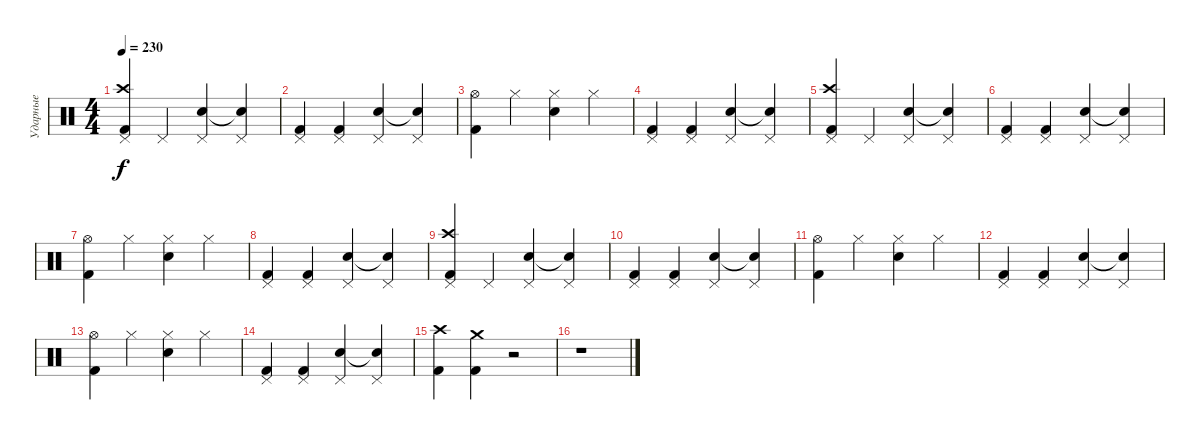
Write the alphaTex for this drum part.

\track ("Ударные" "Ударные") {instrument percussion}
\staff {score}
\articulation defaults
\ts (4 4)
\tempo 230
\clef neutral
\ks c
("Pedal Hi-Hat (hit)" "Crash high (hit)" "Kick (hit) 2").4{dy f} "Pedal Hi-Hat (hit)".4 ("Pedal Hi-Hat (hit)" "Electric Snare (hit)").4 ("Pedal Hi-Hat (hit)" "Electric Snare (hit)"{t}).4 |
("Pedal Hi-Hat (hit)" "Kick (hit) 2").4 ("Pedal Hi-Hat (hit)" "Kick (hit) 2").4 ("Pedal Hi-Hat (hit)" "Electric Snare (hit)").4 ("Pedal Hi-Hat (hit)" "Electric Snare (hit)"{t}).4 |
("Hi-Hat (open)" "Kick (hit) 2").4 "Hi-Hat (closed)".4 ("Hi-Hat (closed)" "Electric Snare (hit)").4 "Hi-Hat (closed)".4 |
("Pedal Hi-Hat (hit)" "Kick (hit) 2").4 ("Pedal Hi-Hat (hit)" "Kick (hit) 2").4 ("Pedal Hi-Hat (hit)" "Electric Snare (hit)").4 ("Pedal Hi-Hat (hit)" "Electric Snare (hit)"{t}).4 |
("Pedal Hi-Hat (hit)" "Crash high (hit)" "Kick (hit) 2").4 "Pedal Hi-Hat (hit)".4 ("Pedal Hi-Hat (hit)" "Electric Snare (hit)").4 ("Pedal Hi-Hat (hit)" "Electric Snare (hit)"{t}).4 |
("Pedal Hi-Hat (hit)" "Kick (hit) 2").4 ("Pedal Hi-Hat (hit)" "Kick (hit) 2").4 ("Pedal Hi-Hat (hit)" "Electric Snare (hit)").4 ("Pedal Hi-Hat (hit)" "Electric Snare (hit)"{t}).4 |
("Hi-Hat (open)" "Kick (hit) 2").4 "Hi-Hat (closed)".4 ("Hi-Hat (closed)" "Electric Snare (hit)").4 "Hi-Hat (closed)".4 |
("Pedal Hi-Hat (hit)" "Kick (hit) 2").4 ("Pedal Hi-Hat (hit)" "Kick (hit) 2").4 ("Pedal Hi-Hat (hit)" "Electric Snare (hit)").4 ("Pedal Hi-Hat (hit)" "Electric Snare (hit)"{t}).4 |
("Pedal Hi-Hat (hit)" "Crash high (hit)" "Kick (hit) 2").4 "Pedal Hi-Hat (hit)".4 ("Pedal Hi-Hat (hit)" "Electric Snare (hit)").4 ("Pedal Hi-Hat (hit)" "Electric Snare (hit)"{t}).4 |
("Pedal Hi-Hat (hit)" "Kick (hit) 2").4 ("Pedal Hi-Hat (hit)" "Kick (hit) 2").4 ("Pedal Hi-Hat (hit)" "Electric Snare (hit)").4 ("Pedal Hi-Hat (hit)" "Electric Snare (hit)"{t}).4 |
("Hi-Hat (open)" "Kick (hit) 2").4 "Hi-Hat (closed)".4 ("Hi-Hat (closed)" "Electric Snare (hit)").4 "Hi-Hat (closed)".4 |
("Pedal Hi-Hat (hit)" "Kick (hit) 2").4 ("Pedal Hi-Hat (hit)" "Kick (hit) 2").4 ("Pedal Hi-Hat (hit)" "Electric Snare (hit)").4 ("Pedal Hi-Hat (hit)" "Electric Snare (hit)"{t}).4 |
("Hi-Hat (open)" "Kick (hit) 2").4 "Hi-Hat (closed)".4 ("Hi-Hat (closed)" "Electric Snare (hit)").4 "Hi-Hat (closed)".4 |
("Pedal Hi-Hat (hit)" "Kick (hit) 2").4 ("Pedal Hi-Hat (hit)" "Kick (hit) 2").4 ("Pedal Hi-Hat (hit)" "Electric Snare (hit)").4 ("Pedal Hi-Hat (hit)" "Electric Snare (hit)"{t}).4 |
("Crash high (hit)" "Kick (hit) 2").4 ("Crash medium (hit)" "Kick (hit) 2").4 r.2 |
r.1
